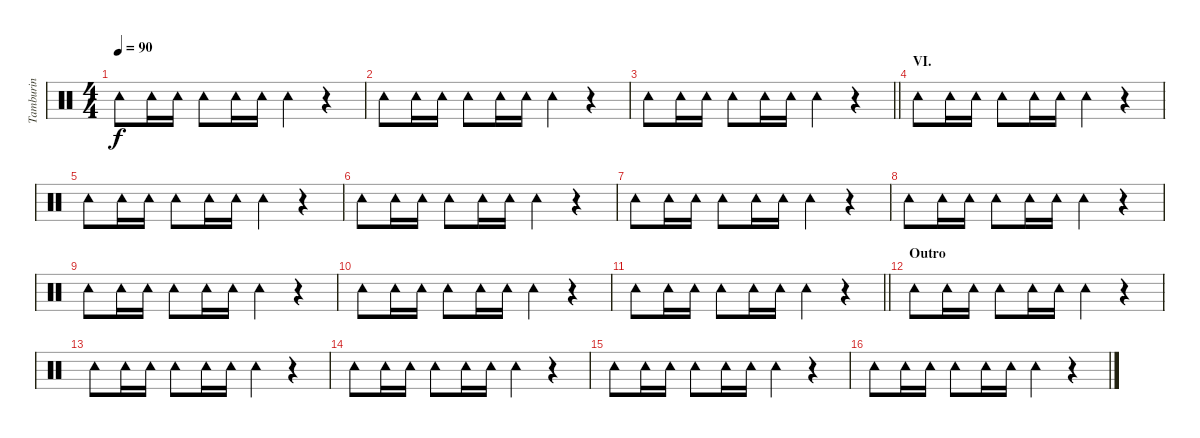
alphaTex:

\track ("Tamburin" "Tamburin") {instrument percussion}
\staff {score}
\articulation defaults
\ts (4 4)
\tempo 90
\clef neutral
\ks c "Tambourine (hit)".8{dy f} "Tambourine (hit)".16 "Tambourine (hit)".16 "Tambourine (hit)".8 "Tambourine (hit)".16 "Tambourine (hit)".16 "Tambourine (hit)".4
r.4 |
"Tambourine (hit)".8 "Tambourine (hit)".16 "Tambourine (hit)".16 "Tambourine (hit)".8 "Tambourine (hit)".16 "Tambourine (hit)".16 "Tambourine (hit)".4 r.4 |
\barLineRight lightlight "Tambourine (hit)".8 "Tambourine (hit)".16 "Tambourine (hit)".16 "Tambourine (hit)".8 "Tambourine (hit)".16 "Tambourine (hit)".16 "Tambourine (hit)".4
r.4 |
\section ("" "VI.")
"Tambourine (hit)".8 "Tambourine (hit)".16 "Tambourine (hit)".16 "Tambourine (hit)".8 "Tambourine (hit)".16 "Tambourine (hit)".16 "Tambourine (hit)".4 r.4 |
"Tambourine (hit)".8 "Tambourine (hit)".16 "Tambourine (hit)".16 "Tambourine (hit)".8 "Tambourine (hit)".16 "Tambourine (hit)".16 "Tambourine (hit)".4 r.4 |
"Tambourine (hit)".8 "Tambourine (hit)".16 "Tambourine (hit)".16 "Tambourine (hit)".8 "Tambourine (hit)".16 "Tambourine (hit)".16 "Tambourine (hit)".4 r.4 |
"Tambourine (hit)".8 "Tambourine (hit)".16 "Tambourine (hit)".16 "Tambourine (hit)".8 "Tambourine (hit)".16 "Tambourine (hit)".16 "Tambourine (hit)".4 r.4 |
"Tambourine (hit)".8 "Tambourine (hit)".16 "Tambourine (hit)".16 "Tambourine (hit)".8 "Tambourine (hit)".16 "Tambourine (hit)".16 "Tambourine (hit)".4 r.4 |
"Tambourine (hit)".8 "Tambourine (hit)".16 "Tambourine (hit)".16 "Tambourine (hit)".8 "Tambourine (hit)".16 "Tambourine (hit)".16 "Tambourine (hit)".4 r.4 |
"Tambourine (hit)".8 "Tambourine (hit)".16 "Tambourine (hit)".16 "Tambourine (hit)".8 "Tambourine (hit)".16 "Tambourine (hit)".16 "Tambourine (hit)".4 r.4 |
\barLineRight lightlight "Tambourine (hit)".8 "Tambourine (hit)".16 "Tambourine (hit)".16 "Tambourine (hit)".8 "Tambourine (hit)".16 "Tambourine (hit)".16 "Tambourine (hit)".4
r.4 |
\section ("" "Outro")
"Tambourine (hit)".8 "Tambourine (hit)".16 "Tambourine (hit)".16 "Tambourine (hit)".8 "Tambourine (hit)".16 "Tambourine (hit)".16 "Tambourine (hit)".4 r.4 |
"Tambourine (hit)".8 "Tambourine (hit)".16 "Tambourine (hit)".16 "Tambourine (hit)".8 "Tambourine (hit)".16 "Tambourine (hit)".16 "Tambourine (hit)".4 r.4 |
"Tambourine (hit)".8 "Tambourine (hit)".16 "Tambourine (hit)".16 "Tambourine (hit)".8 "Tambourine (hit)".16 "Tambourine (hit)".16 "Tambourine (hit)".4 r.4 |
"Tambourine (hit)".8 "Tambourine (hit)".16 "Tambourine (hit)".16 "Tambourine (hit)".8 "Tambourine (hit)".16 "Tambourine (hit)".16 "Tambourine (hit)".4 r.4 |
"Tambourine (hit)".8 "Tambourine (hit)".16 "Tambourine (hit)".16 "Tambourine (hit)".8 "Tambourine (hit)".16 "Tambourine (hit)".16 "Tambourine (hit)".4 r.4
